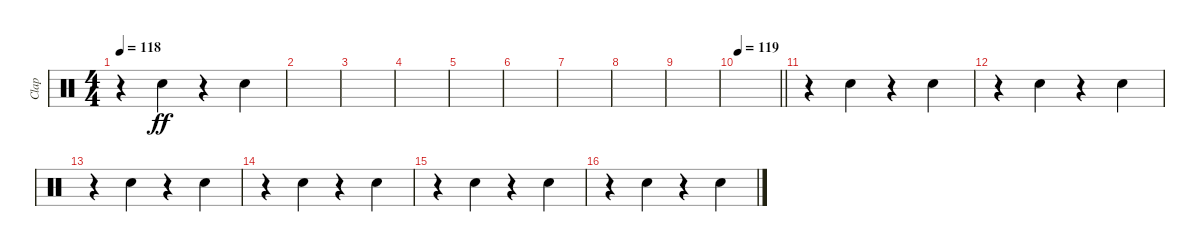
\track ("Clap" "Clap") {instrument percussion}
\staff {score}
\articulation defaults
\ts (4 4)
\tempo 118
\clef neutral
\ks c
r.4{dy ff} "Hand Clap (hit)".4 r.4 "Hand Clap (hit)".4 |
|
|
|
|
|
|
|
|
\tempo 119
\barLineRight lightlight
|
r.4 "Hand Clap (hit)".4 r.4 "Hand Clap (hit)".4 |
r.4 "Hand Clap (hit)".4 r.4 "Hand Clap (hit)".4 |
r.4 "Hand Clap (hit)".4 r.4 "Hand Clap (hit)".4 |
r.4 "Hand Clap (hit)".4 r.4 "Hand Clap (hit)".4 |
r.4 "Hand Clap (hit)".4 r.4 "Hand Clap (hit)".4 |
r.4 "Hand Clap (hit)".4 r.4 "Hand Clap (hit)".4
